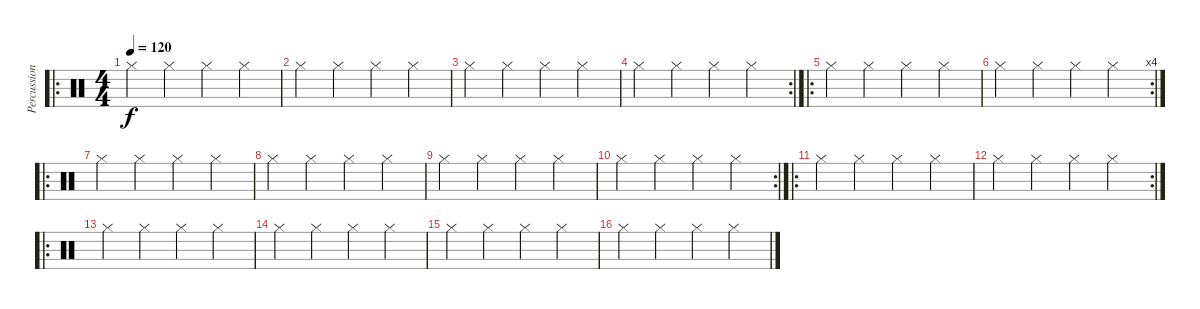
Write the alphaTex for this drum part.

\track ("Percussioni" "Percussion") {instrument percussion}
\staff {score}
\articulation defaults
\ro
\ts (4 4)
\tempo 120
\clef neutral
\ks c "Hi-Hat (closed)".4{dy f} "Hi-Hat (closed)".4 "Hi-Hat (closed)".4 "Hi-Hat (closed)".4
|
"Hi-Hat (closed)".4 "Hi-Hat (closed)".4 "Hi-Hat (closed)".4 "Hi-Hat (closed)".4 |
"Hi-Hat (closed)".4 "Hi-Hat (closed)".4 "Hi-Hat (closed)".4 "Hi-Hat (closed)".4 |
\rc 2 "Hi-Hat (closed)".4 "Hi-Hat (closed)".4 "Hi-Hat (closed)".4 "Hi-Hat (closed)".4
|
\ro "Hi-Hat (closed)".4 "Hi-Hat (closed)".4 "Hi-Hat (closed)".4 "Hi-Hat (closed)".4
|
\rc 4 "Hi-Hat (closed)".4 "Hi-Hat (closed)".4 "Hi-Hat (closed)".4 "Hi-Hat (closed)".4
|
\ro "Hi-Hat (closed)".4 "Hi-Hat (closed)".4 "Hi-Hat (closed)".4 "Hi-Hat (closed)".4
|
"Hi-Hat (closed)".4 "Hi-Hat (closed)".4 "Hi-Hat (closed)".4 "Hi-Hat (closed)".4 |
"Hi-Hat (closed)".4 "Hi-Hat (closed)".4 "Hi-Hat (closed)".4 "Hi-Hat (closed)".4 |
\rc 2 "Hi-Hat (closed)".4 "Hi-Hat (closed)".4 "Hi-Hat (closed)".4 "Hi-Hat (closed)".4
|
\ro "Hi-Hat (closed)".4 "Hi-Hat (closed)".4 "Hi-Hat (closed)".4 "Hi-Hat (closed)".4
|
\rc 2 "Hi-Hat (closed)".4 "Hi-Hat (closed)".4 "Hi-Hat (closed)".4 "Hi-Hat (closed)".4
|
\ro "Hi-Hat (closed)".4 "Hi-Hat (closed)".4 "Hi-Hat (closed)".4 "Hi-Hat (closed)".4
|
"Hi-Hat (closed)".4 "Hi-Hat (closed)".4 "Hi-Hat (closed)".4 "Hi-Hat (closed)".4 |
"Hi-Hat (closed)".4 "Hi-Hat (closed)".4 "Hi-Hat (closed)".4 "Hi-Hat (closed)".4 |
"Hi-Hat (closed)".4 "Hi-Hat (closed)".4 "Hi-Hat (closed)".4 "Hi-Hat (closed)".4
